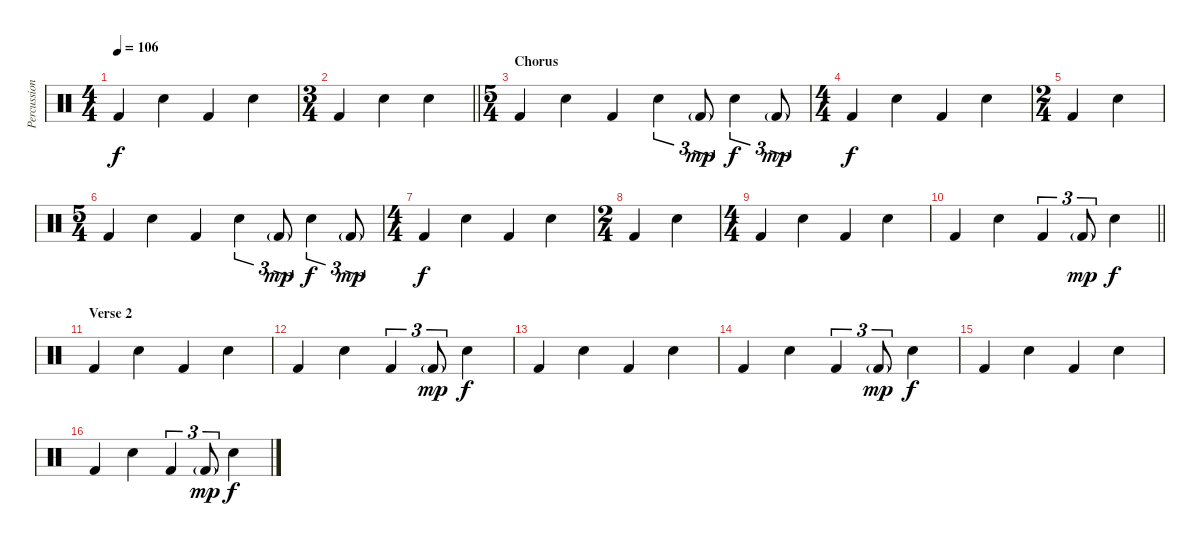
\track ("Percussion" "Percussion") {instrument percussion}
\staff {score}
\articulation defaults
\ts (4 4)
\tempo 106
\clef neutral
\ks c "Kick (hit) 2".4{dy f} "Snare (hit) 2".4 "Kick (hit) 2".4 "Snare (hit) 2".4
|
\ts (3 4)
\barLineRight lightlight "Kick (hit) 2".4 "Snare (hit) 2".4 "Snare (hit) 2".4
|
\ts (5 4)
\section ("" "Chorus")
"Kick (hit) 2".4 "Snare (hit) 2".4 "Kick (hit) 2".4 "Snare (hit) 2".4{tu (3 2)} "Kick (hit) 2"{g}.8{tu (3 2) dy mp} "Snare (hit) 2".4{tu (3 2) dy f} "Kick (hit) 2"{g}.8{tu (3 2) dy mp} |
\ts (4 4)
"Kick (hit) 2".4{dy f} "Snare (hit) 2".4 "Kick (hit) 2".4 "Snare (hit) 2".4 |
\ts (2 4)
"Kick (hit) 2".4 "Snare (hit) 2".4 |
\ts (5 4)
"Kick (hit) 2".4 "Snare (hit) 2".4 "Kick (hit) 2".4 "Snare (hit) 2".4{tu (3 2)} "Kick (hit) 2"{g}.8{tu (3 2) dy mp} "Snare (hit) 2".4{tu (3 2) dy f} "Kick (hit) 2"{g}.8{tu (3 2) dy mp} |
\ts (4 4)
"Kick (hit) 2".4{dy f} "Snare (hit) 2".4 "Kick (hit) 2".4 "Snare (hit) 2".4 |
\ts (2 4)
"Kick (hit) 2".4 "Snare (hit) 2".4 |
\ts (4 4)
"Kick (hit) 2".4 "Snare (hit) 2".4 "Kick (hit) 2".4 "Snare (hit) 2".4 |
\barLineRight lightlight "Kick (hit) 2".4 "Snare (hit) 2".4 "Kick (hit) 2".4{tu (3 2)} "Kick (hit) 2"{g}.8{tu (3 2) dy mp} "Snare (hit) 2".4{dy f}
|
\section ("" "Verse 2")
"Kick (hit) 2".4 "Snare (hit) 2".4 "Kick (hit) 2".4 "Snare (hit) 2".4 |
"Kick (hit) 2".4 "Snare (hit) 2".4 "Kick (hit) 2".4{tu (3 2)} "Kick (hit) 2"{g}.8{tu (3 2) dy mp} "Snare (hit) 2".4{dy f} |
"Kick (hit) 2".4 "Snare (hit) 2".4 "Kick (hit) 2".4 "Snare (hit) 2".4 |
"Kick (hit) 2".4 "Snare (hit) 2".4 "Kick (hit) 2".4{tu (3 2)} "Kick (hit) 2"{g}.8{tu (3 2) dy mp} "Snare (hit) 2".4{dy f} |
"Kick (hit) 2".4 "Snare (hit) 2".4 "Kick (hit) 2".4 "Snare (hit) 2".4 |
"Kick (hit) 2".4 "Snare (hit) 2".4 "Kick (hit) 2".4{tu (3 2)} "Kick (hit) 2"{g}.8{tu (3 2) dy mp} "Snare (hit) 2".4{dy f}
